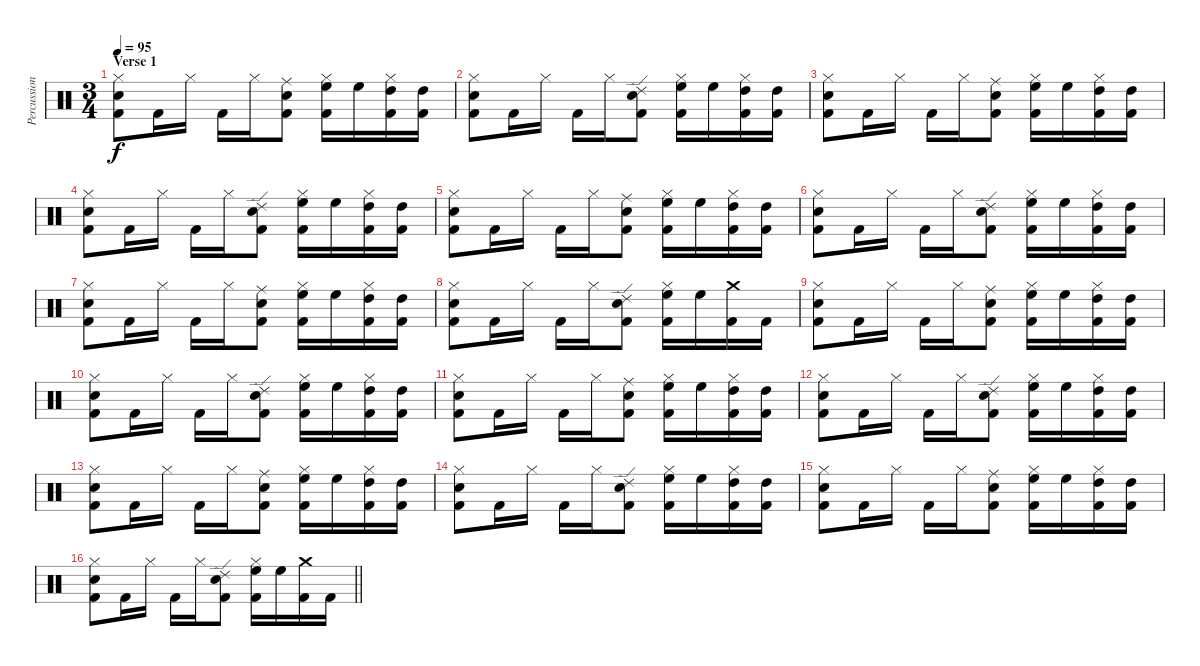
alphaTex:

\track ("Percussion" "Percussion") {instrument percussion}
\staff {score}
\articulation defaults
\ts (3 4)
\section ("" "Verse 1")
\tempo 95
\clef neutral
\ks c
("Hi-Hat (closed)" "Snare (hit) 2" "Kick (hit) 2").8{dy f} "Kick (hit) 2".16 "Hi-Hat (closed)".16 "Kick (hit) 2".16 "Hi-Hat (closed)".16 ("Ride (middle)" "Snare (hit) 2" "Kick (hit) 2").8 ("Hi-Hat (closed)" "High Floor Tom (hit)" "Kick (hit) 2").16 "High Floor Tom (hit)".16 ("Hi-Hat (closed)" "High Tom (hit)" "Kick (hit) 2").16 ("High Tom (hit)" "Kick (hit) 2").16 |
("Hi-Hat (closed)" "Snare (hit) 2" "Kick (hit) 2").8 "Kick (hit) 2".16 "Hi-Hat (closed)".16 "Kick (hit) 2".16 "Hi-Hat (closed)".16 ("Ride (edge) 2" "Snare (hit) 2" "Kick (hit) 2").8 ("Hi-Hat (closed)" "High Floor Tom (hit)" "Kick (hit) 2").16 "High Floor Tom (hit)".16 ("Hi-Hat (closed)" "High Tom (hit)" "Kick (hit) 2").16 ("High Tom (hit)" "Kick (hit) 2").16 |
("Hi-Hat (closed)" "Snare (hit) 2" "Kick (hit) 2").8 "Kick (hit) 2".16 "Hi-Hat (closed)".16 "Kick (hit) 2".16 "Hi-Hat (closed)".16 ("Ride (middle)" "Snare (hit) 2" "Kick (hit) 2").8 ("Hi-Hat (closed)" "High Floor Tom (hit)" "Kick (hit) 2").16 "High Floor Tom (hit)".16 ("Hi-Hat (closed)" "High Tom (hit)" "Kick (hit) 2").16 ("High Tom (hit)" "Kick (hit) 2").16 |
("Hi-Hat (closed)" "Snare (hit) 2" "Kick (hit) 2").8 "Kick (hit) 2".16 "Hi-Hat (closed)".16 "Kick (hit) 2".16 "Hi-Hat (closed)".16 ("Ride (edge) 2" "Snare (hit) 2" "Kick (hit) 2").8 ("Hi-Hat (closed)" "High Floor Tom (hit)" "Kick (hit) 2").16 "High Floor Tom (hit)".16 ("Hi-Hat (closed)" "High Tom (hit)" "Kick (hit) 2").16 ("High Tom (hit)" "Kick (hit) 2").16 |
("Hi-Hat (closed)" "Snare (hit) 2" "Kick (hit) 2").8 "Kick (hit) 2".16 "Hi-Hat (closed)".16 "Kick (hit) 2".16 "Hi-Hat (closed)".16 ("Ride (middle)" "Snare (hit) 2" "Kick (hit) 2").8 ("Hi-Hat (closed)" "High Floor Tom (hit)" "Kick (hit) 2").16 "High Floor Tom (hit)".16 ("Hi-Hat (closed)" "High Tom (hit)" "Kick (hit) 2").16 ("High Tom (hit)" "Kick (hit) 2").16 |
("Hi-Hat (closed)" "Snare (hit) 2" "Kick (hit) 2").8 "Kick (hit) 2".16 "Hi-Hat (closed)".16 "Kick (hit) 2".16 "Hi-Hat (closed)".16 ("Ride (edge) 2" "Snare (hit) 2" "Kick (hit) 2").8 ("Hi-Hat (closed)" "High Floor Tom (hit)" "Kick (hit) 2").16 "High Floor Tom (hit)".16 ("Hi-Hat (closed)" "High Tom (hit)" "Kick (hit) 2").16 ("High Tom (hit)" "Kick (hit) 2").16 |
("Hi-Hat (closed)" "Snare (hit) 2" "Kick (hit) 2").8 "Kick (hit) 2".16 "Hi-Hat (closed)".16 "Kick (hit) 2".16 "Hi-Hat (closed)".16 ("Ride (middle)" "Snare (hit) 2" "Kick (hit) 2").8 ("Hi-Hat (closed)" "High Floor Tom (hit)" "Kick (hit) 2").16 "High Floor Tom (hit)".16 ("Hi-Hat (closed)" "High Tom (hit)" "Kick (hit) 2").16 ("High Tom (hit)" "Kick (hit) 2").16 |
("Hi-Hat (closed)" "Snare (hit) 2" "Kick (hit) 2").8 "Kick (hit) 2".16 "Hi-Hat (closed)".16 "Kick (hit) 2".16 "Hi-Hat (closed)".16 ("Ride (edge) 2" "Snare (hit) 2" "Kick (hit) 2").8 ("Hi-Hat (closed)" "High Floor Tom (hit)" "Kick (hit) 2").16 "High Floor Tom (hit)".16 ("Crash medium (hit)" "Kick (hit) 2").16 "Kick (hit) 2".16 |
("Hi-Hat (closed)" "Snare (hit) 2" "Kick (hit) 2").8 "Kick (hit) 2".16 "Hi-Hat (closed)".16 "Kick (hit) 2".16 "Hi-Hat (closed)".16 ("Ride (middle)" "Snare (hit) 2" "Kick (hit) 2").8 ("Hi-Hat (closed)" "High Floor Tom (hit)" "Kick (hit) 2").16 "High Floor Tom (hit)".16 ("Hi-Hat (closed)" "High Tom (hit)" "Kick (hit) 2").16 ("High Tom (hit)" "Kick (hit) 2").16 |
("Hi-Hat (closed)" "Snare (hit) 2" "Kick (hit) 2").8 "Kick (hit) 2".16 "Hi-Hat (closed)".16 "Kick (hit) 2".16 "Hi-Hat (closed)".16 ("Ride (edge) 2" "Snare (hit) 2" "Kick (hit) 2").8 ("Hi-Hat (closed)" "High Floor Tom (hit)" "Kick (hit) 2").16 "High Floor Tom (hit)".16 ("Hi-Hat (closed)" "High Tom (hit)" "Kick (hit) 2").16 ("High Tom (hit)" "Kick (hit) 2").16 |
("Hi-Hat (closed)" "Snare (hit) 2" "Kick (hit) 2").8 "Kick (hit) 2".16 "Hi-Hat (closed)".16 "Kick (hit) 2".16 "Hi-Hat (closed)".16 ("Ride (middle)" "Snare (hit) 2" "Kick (hit) 2").8 ("Hi-Hat (closed)" "High Floor Tom (hit)" "Kick (hit) 2").16 "High Floor Tom (hit)".16 ("Hi-Hat (closed)" "High Tom (hit)" "Kick (hit) 2").16 ("High Tom (hit)" "Kick (hit) 2").16 |
("Hi-Hat (closed)" "Snare (hit) 2" "Kick (hit) 2").8 "Kick (hit) 2".16 "Hi-Hat (closed)".16 "Kick (hit) 2".16 "Hi-Hat (closed)".16 ("Ride (edge) 2" "Snare (hit) 2" "Kick (hit) 2").8 ("Hi-Hat (closed)" "High Floor Tom (hit)" "Kick (hit) 2").16 "High Floor Tom (hit)".16 ("Hi-Hat (closed)" "High Tom (hit)" "Kick (hit) 2").16 ("High Tom (hit)" "Kick (hit) 2").16 |
("Hi-Hat (closed)" "Snare (hit) 2" "Kick (hit) 2").8 "Kick (hit) 2".16 "Hi-Hat (closed)".16 "Kick (hit) 2".16 "Hi-Hat (closed)".16 ("Ride (middle)" "Snare (hit) 2" "Kick (hit) 2").8 ("Hi-Hat (closed)" "High Floor Tom (hit)" "Kick (hit) 2").16 "High Floor Tom (hit)".16 ("Hi-Hat (closed)" "High Tom (hit)" "Kick (hit) 2").16 ("High Tom (hit)" "Kick (hit) 2").16 |
("Hi-Hat (closed)" "Snare (hit) 2" "Kick (hit) 2").8 "Kick (hit) 2".16 "Hi-Hat (closed)".16 "Kick (hit) 2".16 "Hi-Hat (closed)".16 ("Ride (edge) 2" "Snare (hit) 2" "Kick (hit) 2").8 ("Hi-Hat (closed)" "High Floor Tom (hit)" "Kick (hit) 2").16 "High Floor Tom (hit)".16 ("Hi-Hat (closed)" "High Tom (hit)" "Kick (hit) 2").16 ("High Tom (hit)" "Kick (hit) 2").16 |
("Hi-Hat (closed)" "Snare (hit) 2" "Kick (hit) 2").8 "Kick (hit) 2".16 "Hi-Hat (closed)".16 "Kick (hit) 2".16 "Hi-Hat (closed)".16 ("Ride (middle)" "Snare (hit) 2" "Kick (hit) 2").8 ("Hi-Hat (closed)" "High Floor Tom (hit)" "Kick (hit) 2").16 "High Floor Tom (hit)".16 ("Hi-Hat (closed)" "High Tom (hit)" "Kick (hit) 2").16 ("High Tom (hit)" "Kick (hit) 2").16 |
\barLineRight lightlight
("Hi-Hat (closed)" "Snare (hit) 2" "Kick (hit) 2").8 "Kick (hit) 2".16 "Hi-Hat (closed)".16 "Kick (hit) 2".16 "Hi-Hat (closed)".16 ("Ride (edge) 2" "Snare (hit) 2" "Kick (hit) 2").8 ("Hi-Hat (closed)" "High Floor Tom (hit)" "Kick (hit) 2").16 "High Floor Tom (hit)".16 ("Crash medium (hit)" "Kick (hit) 2").16 "Kick (hit) 2".16
